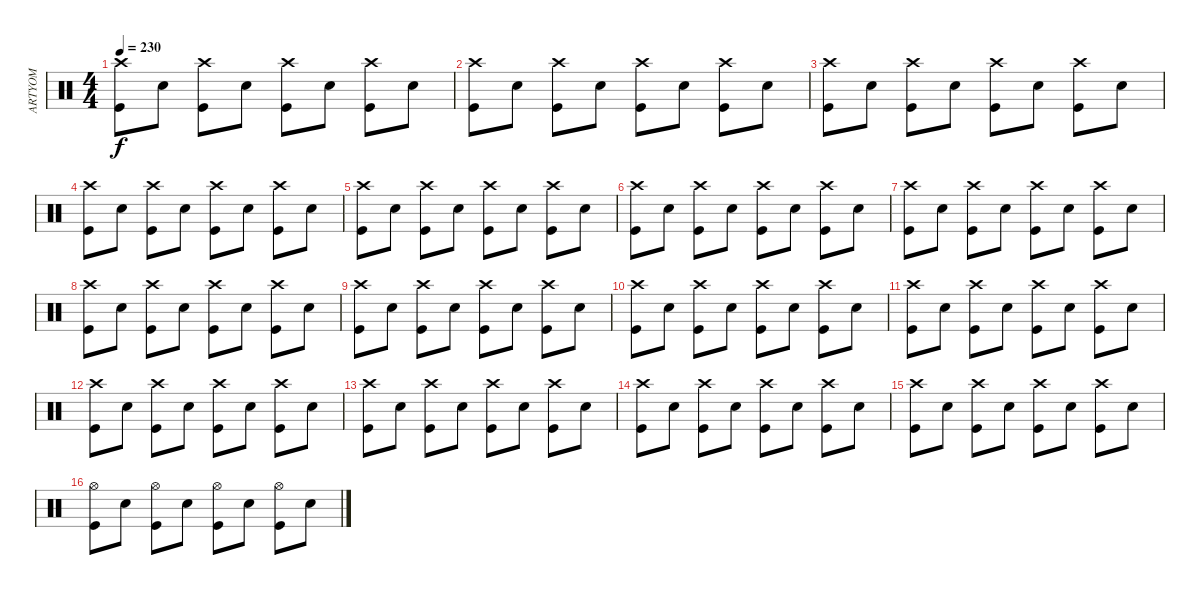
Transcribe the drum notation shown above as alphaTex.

\track ("ARTYOM" "ARTYOM") {instrument percussion}
\staff {score}
\articulation defaults
\ts (4 4)
\tempo 230
\clef neutral
\ks c
("Kick (hit)" "Crash high (hit)").8{dy f} "Snare (hit) 2".8 ("Kick (hit)" "Crash high (hit)").8 "Snare (hit) 2".8 ("Kick (hit)" "Crash high (hit)").8 "Snare (hit) 2".8 ("Kick (hit)" "Crash high (hit)").8 "Snare (hit) 2".8 |
("Kick (hit)" "Crash high (hit)").8 "Snare (hit) 2".8 ("Kick (hit)" "Crash high (hit)").8 "Snare (hit) 2".8 ("Kick (hit)" "Crash high (hit)").8 "Snare (hit) 2".8 ("Kick (hit)" "Crash high (hit)").8 "Snare (hit) 2".8 |
("Kick (hit)" "Crash high (hit)").8 "Snare (hit) 2".8 ("Kick (hit)" "Crash high (hit)").8 "Snare (hit) 2".8 ("Kick (hit)" "Crash high (hit)").8 "Snare (hit) 2".8 ("Kick (hit)" "Crash high (hit)").8 "Snare (hit) 2".8 |
("Kick (hit)" "Crash high (hit)").8 "Snare (hit) 2".8 ("Kick (hit)" "Crash high (hit)").8 "Snare (hit) 2".8 ("Kick (hit)" "Crash high (hit)").8 "Snare (hit) 2".8 ("Kick (hit)" "Crash high (hit)").8 "Snare (hit) 2".8 |
("Kick (hit)" "Crash high (hit)").8 "Snare (hit) 2".8 ("Kick (hit)" "Crash high (hit)").8 "Snare (hit) 2".8 ("Kick (hit)" "Crash high (hit)").8 "Snare (hit) 2".8 ("Kick (hit)" "Crash high (hit)").8 "Snare (hit) 2".8 |
("Kick (hit)" "Crash high (hit)").8 "Snare (hit) 2".8 ("Kick (hit)" "Crash high (hit)").8 "Snare (hit) 2".8 ("Kick (hit)" "Crash high (hit)").8 "Snare (hit) 2".8 ("Kick (hit)" "Crash high (hit)").8 "Snare (hit) 2".8 |
("Kick (hit)" "Crash high (hit)").8 "Snare (hit) 2".8 ("Kick (hit)" "Crash high (hit)").8 "Snare (hit) 2".8 ("Kick (hit)" "Crash high (hit)").8 "Snare (hit) 2".8 ("Kick (hit)" "Crash high (hit)").8 "Snare (hit) 2".8 |
("Kick (hit)" "Crash high (hit)").8 "Snare (hit) 2".8 ("Kick (hit)" "Crash high (hit)").8 "Snare (hit) 2".8 ("Kick (hit)" "Crash high (hit)").8 "Snare (hit) 2".8 ("Kick (hit)" "Crash high (hit)").8 "Snare (hit) 2".8 |
("Kick (hit)" "Crash high (hit)").8 "Snare (hit) 2".8 ("Kick (hit)" "Crash high (hit)").8 "Snare (hit) 2".8 ("Kick (hit)" "Crash high (hit)").8 "Snare (hit) 2".8 ("Kick (hit)" "Crash high (hit)").8 "Snare (hit) 2".8 |
("Kick (hit)" "Crash high (hit)").8 "Snare (hit) 2".8 ("Kick (hit)" "Crash high (hit)").8 "Snare (hit) 2".8 ("Kick (hit)" "Crash high (hit)").8 "Snare (hit) 2".8 ("Kick (hit)" "Crash high (hit)").8 "Snare (hit) 2".8 |
("Kick (hit)" "Crash high (hit)").8 "Snare (hit) 2".8 ("Kick (hit)" "Crash high (hit)").8 "Snare (hit) 2".8 ("Kick (hit)" "Crash high (hit)").8 "Snare (hit) 2".8 ("Kick (hit)" "Crash high (hit)").8 "Snare (hit) 2".8 |
("Kick (hit)" "Crash high (hit)").8 "Snare (hit) 2".8 ("Kick (hit)" "Crash high (hit)").8 "Snare (hit) 2".8 ("Kick (hit)" "Crash high (hit)").8 "Snare (hit) 2".8 ("Kick (hit)" "Crash high (hit)").8 "Snare (hit) 2".8 |
("Kick (hit)" "Crash high (hit)").8 "Snare (hit) 2".8 ("Kick (hit)" "Crash high (hit)").8 "Snare (hit) 2".8 ("Kick (hit)" "Crash high (hit)").8 "Snare (hit) 2".8 ("Kick (hit)" "Crash high (hit)").8 "Snare (hit) 2".8 |
("Kick (hit)" "Crash high (hit)").8 "Snare (hit) 2".8 ("Kick (hit)" "Crash high (hit)").8 "Snare (hit) 2".8 ("Kick (hit)" "Crash high (hit)").8 "Snare (hit) 2".8 ("Kick (hit)" "Crash high (hit)").8 "Snare (hit) 2".8 |
("Kick (hit)" "Crash high (hit)").8 "Snare (hit) 2".8 ("Kick (hit)" "Crash high (hit)").8 "Snare (hit) 2".8 ("Kick (hit)" "Crash high (hit)").8 "Snare (hit) 2".8 ("Kick (hit)" "Crash high (hit)").8 "Snare (hit) 2".8 |
("Kick (hit)" "Hi-Hat (open)").8 "Snare (hit) 2".8 ("Kick (hit)" "Hi-Hat (open)").8 "Snare (hit) 2".8 ("Kick (hit)" "Hi-Hat (open)").8 "Snare (hit) 2".8 ("Kick (hit)" "Hi-Hat (open)").8 "Snare (hit) 2".8
